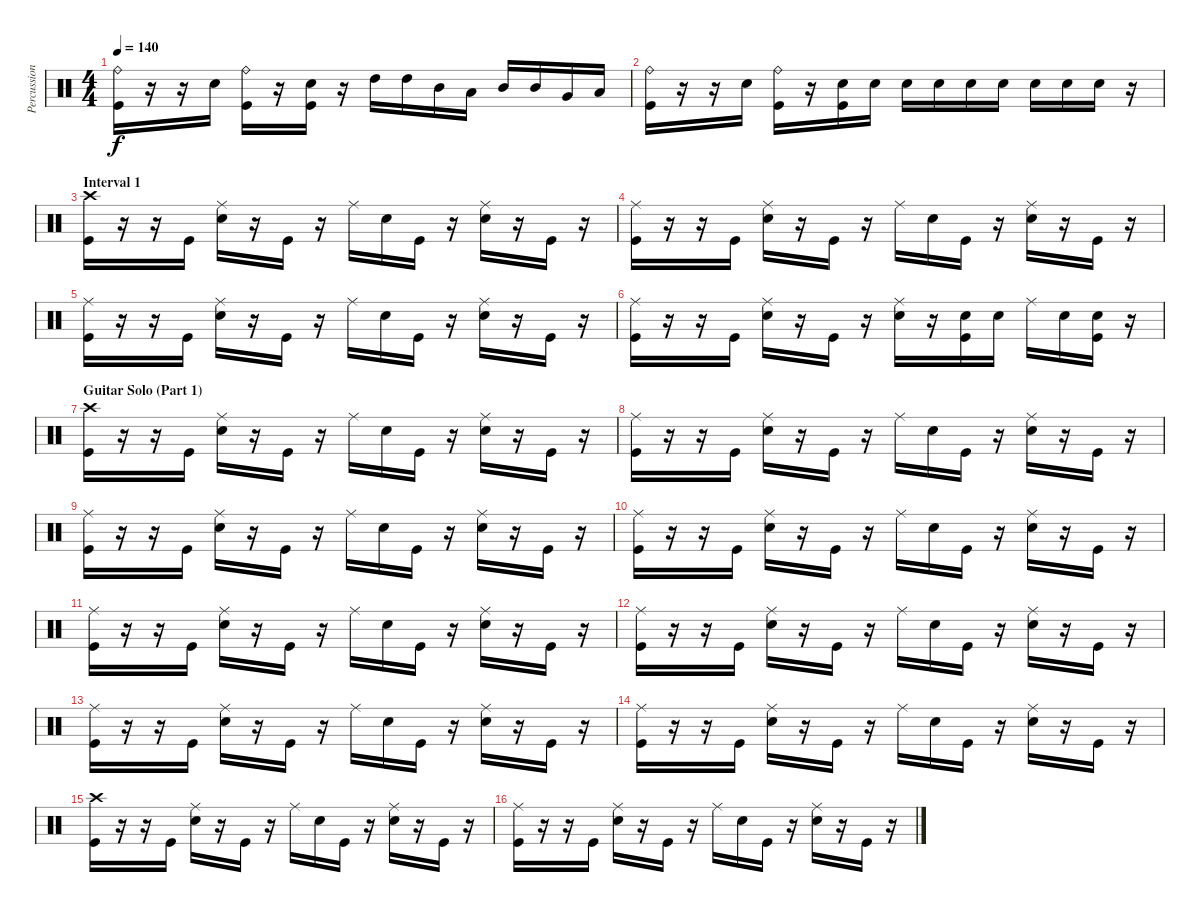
\track ("Percussion" "Percussion") {instrument percussion}
\staff {score}
\articulation defaults
\ts (4 4)
\tempo 140
\clef neutral
\ks c
("Ride (bell)" "Kick (hit)").16{dy f} r.16 r.16 "Electric Snare (hit)".16 ("Ride (bell)" "Kick (hit)").16 r.16 ("Electric Snare (hit)" "Kick (hit)").16 r.16 "High Tom (hit)".16 "High Tom (hit)".16 "Mid Tom (hit)".16 "Low Tom (hit)".16 "Mid Tom (hit)".16 "Mid Tom (hit)".16 "Very Low Tom (hit)".16 "Low Tom (hit)".16 |
("Ride (bell)" "Kick (hit)").16 r.16 r.16 "Electric Snare (hit)".16 ("Ride (bell)" "Kick (hit)").16 r.16 ("Electric Snare (hit)" "Kick (hit)").16 "Electric Snare (hit)".16 "Electric Snare (hit)".16 "Electric Snare (hit)".16 "Electric Snare (hit)".16 "Electric Snare (hit)".16 "Electric Snare (hit)".16 "Electric Snare (hit)".16 "Electric Snare (hit)".16 r.16 |
\section ("" "Interval 1")
("Crash high (hit)" "Kick (hit)").16 r.16 r.16 "Kick (hit)".16 ("Ride (middle)" "Electric Snare (hit)").16 r.16 "Kick (hit)".16 r.16 "Ride (middle)".16 "Electric Snare (hit)".16 "Kick (hit)".16 r.16 ("Ride (middle)" "Electric Snare (hit)").16 r.16 "Kick (hit)".16 r.16 |
("Ride (middle)" "Kick (hit)").16 r.16 r.16 "Kick (hit)".16 ("Ride (middle)" "Electric Snare (hit)").16 r.16 "Kick (hit)".16 r.16 "Ride (middle)".16 "Electric Snare (hit)".16 "Kick (hit)".16 r.16 ("Ride (middle)" "Electric Snare (hit)").16 r.16 "Kick (hit)".16 r.16 |
("Ride (middle)" "Kick (hit)").16 r.16 r.16 "Kick (hit)".16 ("Ride (middle)" "Electric Snare (hit)").16 r.16 "Kick (hit)".16 r.16 "Ride (middle)".16 "Electric Snare (hit)".16 "Kick (hit)".16 r.16 ("Ride (middle)" "Electric Snare (hit)").16 r.16 "Kick (hit)".16 r.16 |
("Ride (middle)" "Kick (hit)").16 r.16 r.16 "Kick (hit)".16 ("Ride (middle)" "Electric Snare (hit)").16 r.16 "Kick (hit)".16 r.16 ("Ride (middle)" "Electric Snare (hit)").16 r.16 ("Electric Snare (hit)" "Kick (hit)").16 "Electric Snare (hit)".16 "Ride (middle)".16 "Electric Snare (hit)".16 ("Electric Snare (hit)" "Kick (hit)").16 r.16 |
\section ("" "Guitar Solo (Part 1)")
("Crash high (hit)" "Kick (hit)").16 r.16 r.16 "Kick (hit)".16 ("Ride (middle)" "Electric Snare (hit)").16 r.16 "Kick (hit)".16 r.16 "Ride (middle)".16 "Electric Snare (hit)".16 "Kick (hit)".16 r.16 ("Ride (middle)" "Electric Snare (hit)").16 r.16 "Kick (hit)".16 r.16 |
("Ride (middle)" "Kick (hit)").16 r.16 r.16 "Kick (hit)".16 ("Ride (middle)" "Electric Snare (hit)").16 r.16 "Kick (hit)".16 r.16 "Ride (middle)".16 "Electric Snare (hit)".16 "Kick (hit)".16 r.16 ("Ride (middle)" "Electric Snare (hit)").16 r.16 "Kick (hit)".16 r.16 |
("Ride (middle)" "Kick (hit)").16 r.16 r.16 "Kick (hit)".16 ("Ride (middle)" "Electric Snare (hit)").16 r.16 "Kick (hit)".16 r.16 "Ride (middle)".16 "Electric Snare (hit)".16 "Kick (hit)".16 r.16 ("Ride (middle)" "Electric Snare (hit)").16 r.16 "Kick (hit)".16 r.16 |
("Ride (middle)" "Kick (hit)").16 r.16 r.16 "Kick (hit)".16 ("Ride (middle)" "Electric Snare (hit)").16 r.16 "Kick (hit)".16 r.16 "Ride (middle)".16 "Electric Snare (hit)".16 "Kick (hit)".16 r.16 ("Ride (middle)" "Electric Snare (hit)").16 r.16 "Kick (hit)".16 r.16 |
("Ride (middle)" "Kick (hit)").16 r.16 r.16 "Kick (hit)".16 ("Ride (middle)" "Electric Snare (hit)").16 r.16 "Kick (hit)".16 r.16 "Ride (middle)".16 "Electric Snare (hit)".16 "Kick (hit)".16 r.16 ("Ride (middle)" "Electric Snare (hit)").16 r.16 "Kick (hit)".16 r.16 |
("Ride (middle)" "Kick (hit)").16 r.16 r.16 "Kick (hit)".16 ("Ride (middle)" "Electric Snare (hit)").16 r.16 "Kick (hit)".16 r.16 "Ride (middle)".16 "Electric Snare (hit)".16 "Kick (hit)".16 r.16 ("Ride (middle)" "Electric Snare (hit)").16 r.16 "Kick (hit)".16 r.16 |
("Ride (middle)" "Kick (hit)").16 r.16 r.16 "Kick (hit)".16 ("Ride (middle)" "Electric Snare (hit)").16 r.16 "Kick (hit)".16 r.16 "Ride (middle)".16 "Electric Snare (hit)".16 "Kick (hit)".16 r.16 ("Ride (middle)" "Electric Snare (hit)").16 r.16 "Kick (hit)".16 r.16 |
("Ride (middle)" "Kick (hit)").16 r.16 r.16 "Kick (hit)".16 ("Ride (middle)" "Electric Snare (hit)").16 r.16 "Kick (hit)".16 r.16 "Ride (middle)".16 "Electric Snare (hit)".16 "Kick (hit)".16 r.16 ("Ride (middle)" "Electric Snare (hit)").16 r.16 "Kick (hit)".16 r.16 |
("Crash high (hit)" "Kick (hit)").16 r.16 r.16 "Kick (hit)".16 ("Ride (middle)" "Electric Snare (hit)").16 r.16 "Kick (hit)".16 r.16 "Ride (middle)".16 "Electric Snare (hit)".16 "Kick (hit)".16 r.16 ("Ride (middle)" "Electric Snare (hit)").16 r.16 "Kick (hit)".16 r.16 |
("Ride (middle)" "Kick (hit)").16 r.16 r.16 "Kick (hit)".16 ("Ride (middle)" "Electric Snare (hit)").16 r.16 "Kick (hit)".16 r.16 "Ride (middle)".16 "Electric Snare (hit)".16 "Kick (hit)".16 r.16 ("Ride (middle)" "Electric Snare (hit)").16 r.16 "Kick (hit)".16 r.16
